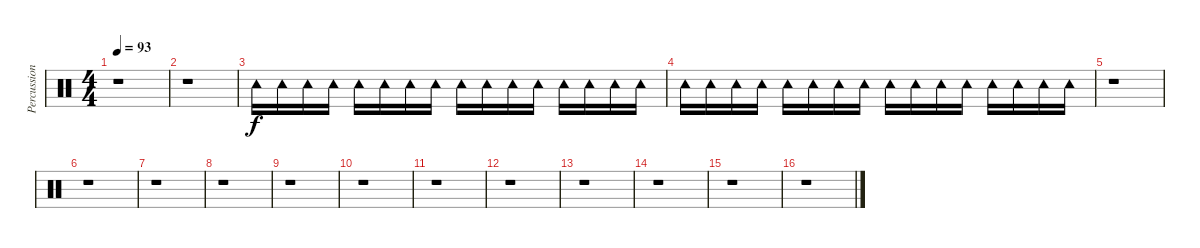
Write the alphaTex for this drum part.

\track ("Percussions" "Percussion") {instrument percussion}
\staff {score}
\articulation defaults
\ts (4 4)
\tempo 93
\clef neutral
\ks c
r.1{dy f} |
r.1 |
"Tambourine (hit)".16 "Tambourine (hit)".16 "Tambourine (hit)".16 "Tambourine (hit)".16 "Tambourine (hit)".16 "Tambourine (hit)".16 "Tambourine (hit)".16 "Tambourine (hit)".16 "Tambourine (hit)".16 "Tambourine (hit)".16 "Tambourine (hit)".16 "Tambourine (hit)".16 "Tambourine (hit)".16 "Tambourine (hit)".16 "Tambourine (hit)".16 "Tambourine (hit)".16 |
"Tambourine (hit)".16 "Tambourine (hit)".16 "Tambourine (hit)".16 "Tambourine (hit)".16 "Tambourine (hit)".16 "Tambourine (hit)".16 "Tambourine (hit)".16 "Tambourine (hit)".16 "Tambourine (hit)".16 "Tambourine (hit)".16 "Tambourine (hit)".16 "Tambourine (hit)".16 "Tambourine (hit)".16 "Tambourine (hit)".16 "Tambourine (hit)".16 "Tambourine (hit)".16 |
r.1 |
r.1 |
r.1 |
r.1 |
r.1 |
r.1 |
r.1 |
r.1 |
r.1 |
r.1 |
r.1 |
r.1
